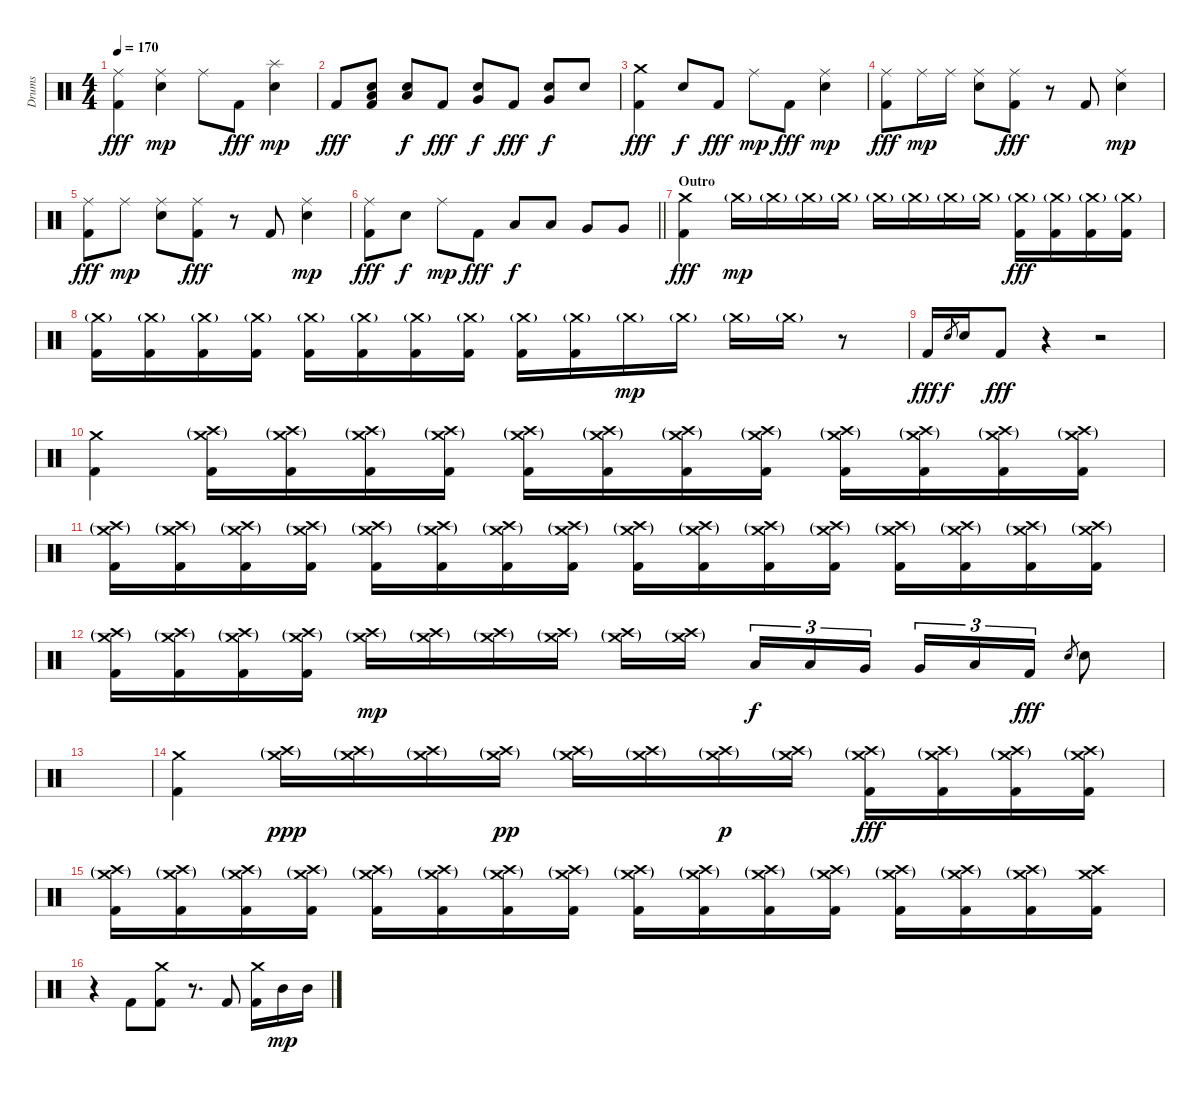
\track ("Drums" "Drums") {instrument percussion}
\staff {score}
\articulation defaults
\ts (4 4)
\tempo 170
\clef neutral
\ks c
("Ride (middle)" "Kick (hit) 2").4{dy fff} ("Ride (middle)" "Electric Snare (hit)").4{dy mp} "Ride (middle)".8 "Kick (hit) 2".8{dy fff} ("Splash (hit)" "Electric Snare (hit)").4{dy mp} |
"Kick (hit) 2".8{dy fff} ("Electric Snare (hit)" "Low Tom (hit)" "Kick (hit) 2").8 ("Electric Snare (hit)" "Low Tom (hit)").8{dy f} "Kick (hit) 2".8{dy fff} ("Electric Snare (hit)" "Very Low Tom (hit)").8{dy f} "Kick (hit) 2".8{dy fff} ("Electric Snare (hit)" "Very Low Tom (hit)").8{dy f} "Electric Snare (hit)".8 |
("Crash medium (hit)" "Kick (hit) 2").4{dy fff} "Electric Snare (hit)".8{dy f} "Kick (hit) 2".8{dy fff} "Ride (middle)".8{dy mp} "Kick (hit) 2".8{dy fff} ("Ride (middle)" "Electric Snare (hit)").4{dy mp} |
("Ride (middle)" "Kick (hit) 2").8{dy fff} "Ride (middle)".16{dy mp} "Ride (middle)".16 ("Ride (middle)" "Electric Snare (hit)").8 ("Ride (middle)" "Kick (hit) 2").8{dy fff} r.8 "Kick (hit) 2".8 ("Ride (middle)" "Electric Snare (hit)").4{dy mp} |
("Ride (middle)" "Kick (hit) 2").8{dy fff} "Ride (middle)".8{dy mp} ("Ride (middle)" "Electric Snare (hit)").8 ("Ride (middle)" "Kick (hit) 2").8{dy fff} r.8 "Kick (hit) 2".8 ("Ride (middle)" "Electric Snare (hit)").4{dy mp} |
\barLineRight lightlight
("Ride (middle)" "Kick (hit) 2").8{dy fff} "Electric Snare (hit)".8{dy f} "Ride (middle)".8{dy mp} "Kick (hit) 2".8{dy fff} "Low Tom (hit)".8{dy f} "Low Tom (hit)".8 "Very Low Tom (hit)".8 "Very Low Tom (hit)".8 |
\section ("" "Outro")
("Crash medium (hit)" "Kick (hit) 2").4{dy fff} "Crash medium (hit)"{g}.16{dy mp} "Crash medium (hit)"{g}.16 "Crash medium (hit)"{g}.16 "Crash medium (hit)"{g}.16 "Crash medium (hit)"{g}.16 "Crash medium (hit)"{g}.16 "Crash medium (hit)"{g}.16 "Crash medium (hit)"{g}.16 ("Crash medium (hit)"{g} "Kick (hit) 2").16{dy fff} ("Crash medium (hit)"{g} "Kick (hit) 2").16 ("Crash medium (hit)"{g} "Kick (hit) 2").16 ("Crash medium (hit)"{g} "Kick (hit) 2").16 |
("Crash medium (hit)"{g} "Kick (hit) 2").16 ("Crash medium (hit)"{g} "Kick (hit) 2").16 ("Crash medium (hit)"{g} "Kick (hit) 2").16 ("Crash medium (hit)"{g} "Kick (hit) 2").16 ("Crash medium (hit)"{g} "Kick (hit) 2").16 ("Crash medium (hit)"{g} "Kick (hit) 2").16 ("Crash medium (hit)"{g} "Kick (hit) 2").16 ("Crash medium (hit)"{g} "Kick (hit) 2").16 ("Crash medium (hit)"{g} "Kick (hit) 2").16 ("Crash medium (hit)"{g} "Kick (hit) 2").16 "Crash medium (hit)"{g}.16{dy mp} "Crash medium (hit)"{g}.16 "Crash medium (hit)"{g}.16 "Crash medium (hit)"{g}.16 r.8 |
"Kick (hit) 2".16{dy fff} "Electric Snare (hit)".8{gr dy f} "Electric Snare (hit)".16 "Kick (hit) 2".8{dy fff} r.4 r.2 |
("Crash medium (hit)" "Kick (hit) 2").4 ("Crash medium (hit)"{g} "Crash high (hit)"{g} "Kick (hit) 2").16 ("Crash medium (hit)"{g} "Crash high (hit)"{g} "Kick (hit) 2").16 ("Crash medium (hit)"{g} "Crash high (hit)"{g} "Kick (hit) 2").16 ("Crash medium (hit)"{g} "Crash high (hit)"{g} "Kick (hit) 2").16 ("Crash medium (hit)"{g} "Crash high (hit)"{g} "Kick (hit) 2").16 ("Crash medium (hit)"{g} "Crash high (hit)"{g} "Kick (hit) 2").16 ("Crash medium (hit)"{g} "Crash high (hit)"{g} "Kick (hit) 2").16 ("Crash medium (hit)"{g} "Crash high (hit)"{g} "Kick (hit) 2").16 ("Crash medium (hit)"{g} "Crash high (hit)"{g} "Kick (hit) 2").16 ("Crash medium (hit)"{g} "Crash high (hit)"{g} "Kick (hit) 2").16 ("Crash medium (hit)"{g} "Crash high (hit)"{g} "Kick (hit) 2").16 ("Crash medium (hit)"{g} "Crash high (hit)"{g} "Kick (hit) 2").16 |
("Crash medium (hit)"{g} "Crash high (hit)"{g} "Kick (hit) 2").16 ("Crash medium (hit)"{g} "Crash high (hit)"{g} "Kick (hit) 2").16 ("Crash medium (hit)"{g} "Crash high (hit)"{g} "Kick (hit) 2").16 ("Crash medium (hit)"{g} "Crash high (hit)"{g} "Kick (hit) 2").16 ("Crash medium (hit)"{g} "Crash high (hit)"{g} "Kick (hit) 2").16 ("Crash medium (hit)"{g} "Crash high (hit)"{g} "Kick (hit) 2").16 ("Crash medium (hit)"{g} "Crash high (hit)"{g} "Kick (hit) 2").16 ("Crash medium (hit)"{g} "Crash high (hit)"{g} "Kick (hit) 2").16 ("Crash medium (hit)"{g} "Crash high (hit)"{g} "Kick (hit) 2").16 ("Crash medium (hit)"{g} "Crash high (hit)"{g} "Kick (hit) 2").16 ("Crash medium (hit)"{g} "Crash high (hit)"{g} "Kick (hit) 2").16 ("Crash medium (hit)"{g} "Crash high (hit)"{g} "Kick (hit) 2").16 ("Crash medium (hit)"{g} "Crash high (hit)"{g} "Kick (hit) 2").16 ("Crash medium (hit)"{g} "Crash high (hit)"{g} "Kick (hit) 2").16 ("Crash medium (hit)"{g} "Crash high (hit)"{g} "Kick (hit) 2").16 ("Crash medium (hit)"{g} "Crash high (hit)"{g} "Kick (hit) 2").16 |
("Crash medium (hit)"{g} "Crash high (hit)"{g} "Kick (hit) 2").16 ("Crash medium (hit)"{g} "Crash high (hit)"{g} "Kick (hit) 2").16 ("Crash medium (hit)"{g} "Crash high (hit)"{g} "Kick (hit) 2").16 ("Crash medium (hit)"{g} "Crash high (hit)"{g} "Kick (hit) 2").16 ("Crash medium (hit)"{g} "Crash high (hit)"{g}).16{dy mp} ("Crash medium (hit)"{g} "Crash high (hit)"{g}).16 ("Crash medium (hit)"{g} "Crash high (hit)"{g}).16 ("Crash medium (hit)"{g} "Crash high (hit)"{g}).16 ("Crash medium (hit)"{g} "Crash high (hit)"{g}).16 ("Crash medium (hit)"{g} "Crash high (hit)"{g}).16{beam splitsecondary} "Low Tom (hit)".16{tu (3 2) dy f} "Low Tom (hit)".16{tu (3 2)} "Very Low Tom (hit)".16{tu (3 2)} "Very Low Tom (hit)".16{tu (3 2)} "Low Floor Tom (hit)".16{tu (3 2)} "Kick (hit) 2".16{tu (3 2) dy fff} "Electric Snare (hit)".8{gr} "Electric Snare (hit)".8 |
|
("Crash medium (hit)" "Kick (hit) 2").4 ("Crash medium (hit)"{g} "Crash high (hit)"{g}).16{dy ppp} ("Crash medium (hit)"{g} "Crash high (hit)"{g}).16 ("Crash medium (hit)"{g} "Crash high (hit)"{g}).16 ("Crash medium (hit)"{g} "Crash high (hit)"{g}).16{dy pp} ("Crash medium (hit)"{g} "Crash high (hit)"{g}).16 ("Crash medium (hit)"{g} "Crash high (hit)"{g}).16 ("Crash medium (hit)"{g} "Crash high (hit)"{g}).16{dy p} ("Crash medium (hit)"{g} "Crash high (hit)"{g}).16 ("Crash medium (hit)"{g} "Crash high (hit)"{g} "Kick (hit) 2").16{dy fff} ("Crash medium (hit)"{g} "Crash high (hit)"{g} "Kick (hit) 2").16 ("Crash medium (hit)"{g} "Crash high (hit)"{g} "Kick (hit) 2").16 ("Crash medium (hit)"{g} "Crash high (hit)"{g} "Kick (hit) 2").16 |
("Crash medium (hit)"{g} "Crash high (hit)"{g} "Kick (hit) 2").16 ("Crash medium (hit)"{g} "Crash high (hit)"{g} "Kick (hit) 2").16 ("Crash medium (hit)"{g} "Crash high (hit)"{g} "Kick (hit) 2").16 ("Crash medium (hit)"{g} "Crash high (hit)"{g} "Kick (hit) 2").16 ("Crash medium (hit)"{g} "Crash high (hit)"{g} "Kick (hit) 2").16 ("Crash medium (hit)"{g} "Crash high (hit)"{g} "Kick (hit) 2").16 ("Crash medium (hit)"{g} "Crash high (hit)"{g} "Kick (hit) 2").16 ("Crash medium (hit)"{g} "Crash high (hit)"{g} "Kick (hit) 2").16 ("Crash medium (hit)"{g} "Crash high (hit)"{g} "Kick (hit) 2").16 ("Crash medium (hit)"{g} "Crash high (hit)"{g} "Kick (hit) 2").16 ("Crash medium (hit)"{g} "Crash high (hit)"{g} "Kick (hit) 2").16 ("Crash medium (hit)"{g} "Crash high (hit)"{g} "Kick (hit) 2").16 ("Crash medium (hit)"{g} "Crash high (hit)"{g} "Kick (hit) 2").16 ("Crash medium (hit)"{g} "Crash high (hit)"{g} "Kick (hit) 2").16 ("Crash medium (hit)"{g} "Crash high (hit)"{g} "Kick (hit) 2").16 ("Crash medium (hit)" "Crash high (hit)" "Kick (hit) 2").16 |
r.4 "Kick (hit) 2".8 ("Crash medium (hit)" "Kick (hit) 2").8 r.8{d} "Kick (hit) 2".8 ("Crash medium (hit)" "Kick (hit) 2").16 "Mid Tom (hit)".16{dy mp} "Mid Tom (hit)".16
